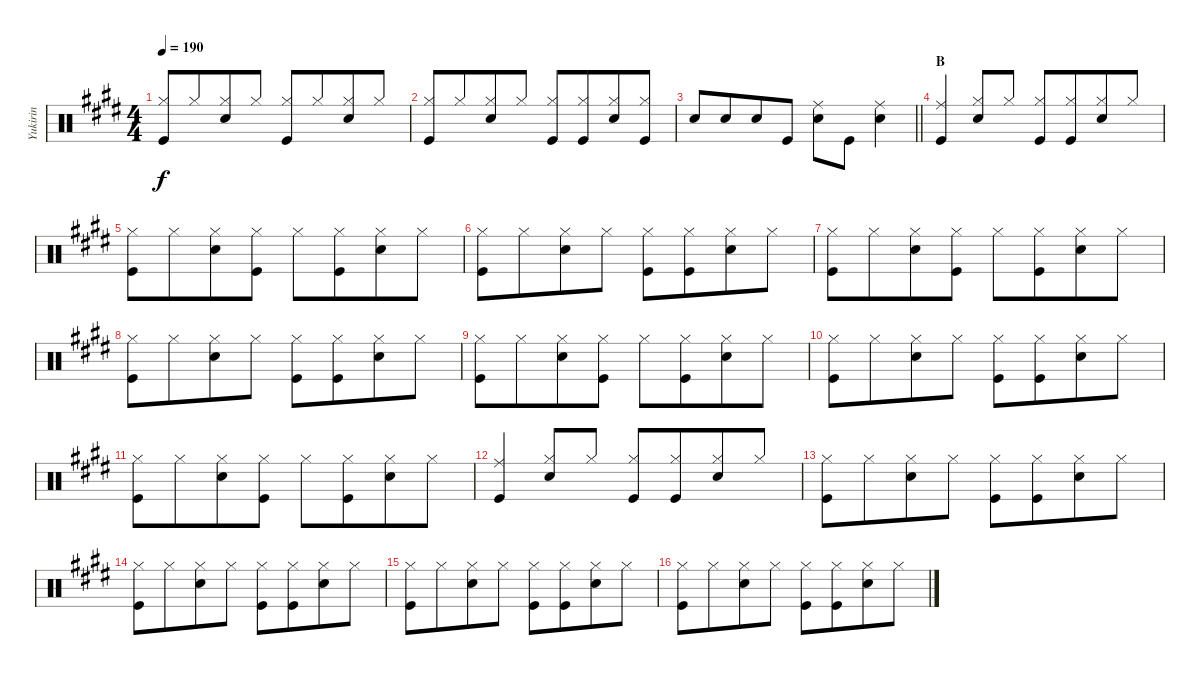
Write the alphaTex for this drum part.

\track ("Yukirin" "Yukirin") {mute instrument percussion}
\staff {score}
\articulation defaults
\ts (4 4)
\tempo 190
\clef neutral
\ks e
("Hi-Hat (closed)" "Kick (hit)").8{dy f beam Up} "Hi-Hat (closed)".8{beam Up beam merge} ("Hi-Hat (closed)" "Snare (hit) 2").8{beam Up} "Hi-Hat (closed)".8{beam Up} ("Hi-Hat (closed)" "Kick (hit)").8{beam Up} "Hi-Hat (closed)".8{beam Up beam merge} ("Hi-Hat (closed)" "Snare (hit) 2").8{beam Up} "Hi-Hat (closed)".8{beam Up} |
("Hi-Hat (closed)" "Kick (hit)").8{beam Up} "Hi-Hat (closed)".8{beam Up beam merge} ("Hi-Hat (closed)" "Snare (hit) 2").8{beam Up} "Hi-Hat (closed)".8{beam Up} ("Hi-Hat (closed)" "Kick (hit)").8{beam Up} ("Hi-Hat (closed)" "Kick (hit)").8{beam Up beam merge} ("Hi-Hat (closed)" "Snare (hit) 2").8{beam Up} ("Hi-Hat (closed)" "Kick (hit)").8{beam Up} |
\barLineRight lightlight "Snare (hit) 2".8 "Snare (hit) 2".8{beam merge} "Snare (hit) 2".8 "Kick (hit)".8
("Ride (middle)" "Snare (hit) 2").8 "Kick (hit)".8 ("Ride (middle)" "Snare (hit) 2").4 |
\section ("" "B")
("Ride (middle)" "Kick (hit)").4{beam Up} ("Hi-Hat (closed)" "Snare (hit) 2").8{beam Up} "Hi-Hat (closed)".8{beam Up} ("Hi-Hat (closed)" "Kick (hit)").8{beam Up} ("Hi-Hat (closed)" "Kick (hit)").8{beam Up beam merge} ("Hi-Hat (closed)" "Snare (hit) 2").8{beam Up} "Hi-Hat (closed)".8{beam Up} |
("Hi-Hat (closed)" "Kick (hit)").8 "Hi-Hat (closed)".8{beam merge} ("Hi-Hat (closed)" "Snare (hit) 2").8 ("Hi-Hat (closed)" "Kick (hit)").8 "Hi-Hat (closed)".8 ("Hi-Hat (closed)" "Kick (hit)").8{beam merge} ("Hi-Hat (closed)" "Snare (hit) 2").8 "Hi-Hat (closed)".8 |
("Hi-Hat (closed)" "Kick (hit)").8 "Hi-Hat (closed)".8{beam merge} ("Hi-Hat (closed)" "Snare (hit) 2").8 "Hi-Hat (closed)".8 ("Hi-Hat (closed)" "Kick (hit)").8 ("Hi-Hat (closed)" "Kick (hit)").8{beam merge} ("Hi-Hat (closed)" "Snare (hit) 2").8 "Hi-Hat (closed)".8 |
("Hi-Hat (closed)" "Kick (hit)").8 "Hi-Hat (closed)".8{beam merge} ("Hi-Hat (closed)" "Snare (hit) 2").8 ("Hi-Hat (closed)" "Kick (hit)").8 "Hi-Hat (closed)".8 ("Hi-Hat (closed)" "Kick (hit)").8{beam merge} ("Hi-Hat (closed)" "Snare (hit) 2").8 "Hi-Hat (closed)".8 |
("Hi-Hat (closed)" "Kick (hit)").8 "Hi-Hat (closed)".8{beam merge} ("Hi-Hat (closed)" "Snare (hit) 2").8 "Hi-Hat (closed)".8 ("Hi-Hat (closed)" "Kick (hit)").8 ("Hi-Hat (closed)" "Kick (hit)").8{beam merge} ("Hi-Hat (closed)" "Snare (hit) 2").8 "Hi-Hat (closed)".8 |
("Hi-Hat (closed)" "Kick (hit)").8 "Hi-Hat (closed)".8{beam merge} ("Hi-Hat (closed)" "Snare (hit) 2").8 ("Hi-Hat (closed)" "Kick (hit)").8 "Hi-Hat (closed)".8 ("Hi-Hat (closed)" "Kick (hit)").8{beam merge} ("Hi-Hat (closed)" "Snare (hit) 2").8 "Hi-Hat (closed)".8 |
("Hi-Hat (closed)" "Kick (hit)").8 "Hi-Hat (closed)".8{beam merge} ("Hi-Hat (closed)" "Snare (hit) 2").8 "Hi-Hat (closed)".8 ("Hi-Hat (closed)" "Kick (hit)").8 ("Hi-Hat (closed)" "Kick (hit)").8{beam merge} ("Hi-Hat (closed)" "Snare (hit) 2").8 "Hi-Hat (closed)".8 |
("Hi-Hat (closed)" "Kick (hit)").8 "Hi-Hat (closed)".8{beam merge} ("Hi-Hat (closed)" "Snare (hit) 2").8 ("Hi-Hat (closed)" "Kick (hit)").8 "Hi-Hat (closed)".8 ("Hi-Hat (closed)" "Kick (hit)").8{beam merge} ("Hi-Hat (closed)" "Snare (hit) 2").8 "Hi-Hat (closed)".8 |
("Ride (middle)" "Kick (hit)").4{beam Up} ("Hi-Hat (closed)" "Snare (hit) 2").8{beam Up} "Hi-Hat (closed)".8{beam Up} ("Hi-Hat (closed)" "Kick (hit)").8{beam Up} ("Hi-Hat (closed)" "Kick (hit)").8{beam Up beam merge} ("Hi-Hat (closed)" "Snare (hit) 2").8{beam Up} "Hi-Hat (closed)".8{beam Up} |
("Hi-Hat (closed)" "Kick (hit)").8 "Hi-Hat (closed)".8{beam merge} ("Hi-Hat (closed)" "Snare (hit) 2").8 "Hi-Hat (closed)".8 ("Hi-Hat (closed)" "Kick (hit)").8 ("Hi-Hat (closed)" "Kick (hit)").8{beam merge} ("Hi-Hat (closed)" "Snare (hit) 2").8 "Hi-Hat (closed)".8 |
("Hi-Hat (closed)" "Kick (hit)").8 "Hi-Hat (closed)".8{beam merge} ("Hi-Hat (closed)" "Snare (hit) 2").8 "Hi-Hat (closed)".8 ("Hi-Hat (closed)" "Kick (hit)").8 ("Hi-Hat (closed)" "Kick (hit)").8{beam merge} ("Hi-Hat (closed)" "Snare (hit) 2").8 "Hi-Hat (closed)".8 |
("Hi-Hat (closed)" "Kick (hit)").8 "Hi-Hat (closed)".8{beam merge} ("Hi-Hat (closed)" "Snare (hit) 2").8 "Hi-Hat (closed)".8 ("Hi-Hat (closed)" "Kick (hit)").8 ("Hi-Hat (closed)" "Kick (hit)").8{beam merge} ("Hi-Hat (closed)" "Snare (hit) 2").8 "Hi-Hat (closed)".8 |
("Hi-Hat (closed)" "Kick (hit)").8 "Hi-Hat (closed)".8{beam merge} ("Hi-Hat (closed)" "Snare (hit) 2").8 "Hi-Hat (closed)".8 ("Hi-Hat (closed)" "Kick (hit)").8 ("Hi-Hat (closed)" "Kick (hit)").8{beam merge} ("Hi-Hat (closed)" "Snare (hit) 2").8 "Hi-Hat (closed)".8
